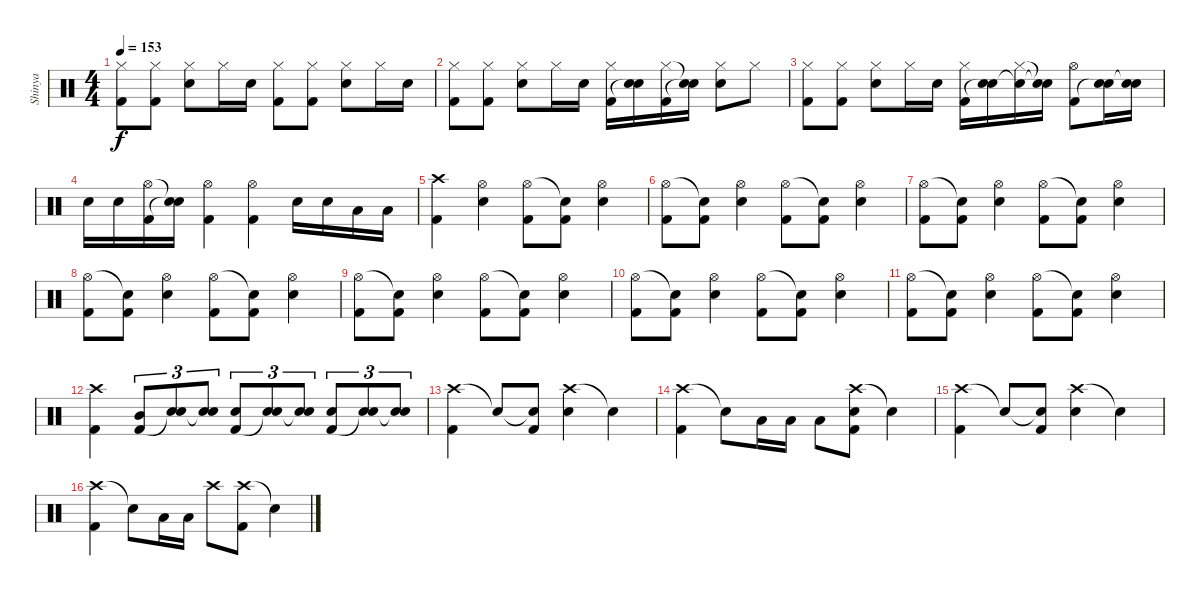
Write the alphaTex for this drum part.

\track ("Shinya" "Shinya") {instrument percussion}
\staff {score}
\articulation defaults
\ts (4 4)
\tempo 153
\clef neutral
\ks c
("Hi-Hat (closed)" "Kick (hit) 2").8{dy f} ("Hi-Hat (closed)" "Kick (hit) 2").8 ("Hi-Hat (closed)" "Electric Snare (hit)").8 "Hi-Hat (closed)".16 "Electric Snare (hit)".16 ("Hi-Hat (closed)" "Kick (hit) 2").8 ("Hi-Hat (closed)" "Kick (hit) 2").8 ("Hi-Hat (closed)" "Electric Snare (hit)").8 "Hi-Hat (closed)".16 "Electric Snare (hit)".16 |
("Hi-Hat (closed)" "Kick (hit) 2").8 ("Hi-Hat (closed)" "Kick (hit) 2").8 ("Hi-Hat (closed)" "Electric Snare (hit)").8 "Hi-Hat (closed)".16 "Electric Snare (hit)".16 ("Hi-Hat (closed)" "Kick (hit) 2").16 ("Electric Snare (hit)" "Snare (hit)"{t}).16 ("Hi-Hat (closed)" "Kick (hit) 2").16 ("Snare (hit)"{t} "Snare (hit)"{t}).16 ("Hi-Hat (closed)" "Electric Snare (hit)").8 "Hi-Hat (closed)".8 |
("Hi-Hat (closed)" "Kick (hit) 2").8 ("Hi-Hat (closed)" "Kick (hit) 2").8 ("Hi-Hat (closed)" "Electric Snare (hit)").8 "Hi-Hat (closed)".16 "Electric Snare (hit)".16 ("Hi-Hat (closed)" "Kick (hit) 2").16 ("Electric Snare (hit)" "Snare (hit)"{t}).16 ("Hi-Hat (closed)" "Snare (hit)"{t}).16 ("Snare (hit)"{t} "Snare (hit)"{t}).16 ("Hi-Hat (open)" "Kick (hit) 2").8 ("Electric Snare (hit)" "Snare (hit)"{t}).16 ("Electric Snare (hit)" "Snare (hit)"{t}).16 |
"Electric Snare (hit)".16 "Electric Snare (hit)".16 ("Hi-Hat (open)" "Kick (hit) 2").16 ("Snare (hit)"{t} "Snare (hit)"{t}).16 ("Hi-Hat (open)" "Kick (hit) 2").4 ("Hi-Hat (open)" "Kick (hit) 2").4 "Electric Snare (hit)".16 "Electric Snare (hit)".16 "Low Tom (hit)".16 "Low Floor Tom (hit)".16 |
("Crash high (hit)" "Kick (hit) 2").4 ("Hi-Hat (open)" "Electric Snare (hit)").4 ("Hi-Hat (open)" "Kick (hit) 2").8 ("Snare (hit)"{t} "Kick (hit) 2").8 ("Hi-Hat (open)" "Electric Snare (hit)").4 |
("Hi-Hat (open)" "Kick (hit) 2").8 ("Snare (hit)"{t} "Kick (hit) 2").8 ("Hi-Hat (open)" "Electric Snare (hit)").4 ("Hi-Hat (open)" "Kick (hit) 2").8 ("Snare (hit)"{t} "Kick (hit) 2").8 ("Hi-Hat (open)" "Electric Snare (hit)").4 |
("Hi-Hat (open)" "Kick (hit) 2").8 ("Snare (hit)"{t} "Kick (hit) 2").8 ("Hi-Hat (open)" "Electric Snare (hit)").4 ("Hi-Hat (open)" "Kick (hit) 2").8 ("Snare (hit)"{t} "Kick (hit) 2").8 ("Hi-Hat (open)" "Electric Snare (hit)").4 |
("Hi-Hat (open)" "Kick (hit) 2").8 ("Snare (hit)"{t} "Kick (hit) 2").8 ("Hi-Hat (open)" "Electric Snare (hit)").4 ("Hi-Hat (open)" "Kick (hit) 2").8 ("Snare (hit)"{t} "Kick (hit) 2").8 ("Hi-Hat (open)" "Electric Snare (hit)").4 |
("Hi-Hat (open)" "Kick (hit) 2").8 ("Snare (hit)"{t} "Kick (hit) 2").8 ("Hi-Hat (open)" "Electric Snare (hit)").4 ("Hi-Hat (open)" "Kick (hit) 2").8 ("Snare (hit)"{t} "Kick (hit) 2").8 ("Hi-Hat (open)" "Electric Snare (hit)").4 |
("Hi-Hat (open)" "Kick (hit) 2").8 ("Snare (hit)"{t} "Kick (hit) 2").8 ("Hi-Hat (open)" "Electric Snare (hit)").4 ("Hi-Hat (open)" "Kick (hit) 2").8 ("Snare (hit)"{t} "Kick (hit) 2").8 ("Hi-Hat (open)" "Electric Snare (hit)").4 |
("Hi-Hat (open)" "Kick (hit) 2").8 ("Snare (hit)"{t} "Kick (hit) 2").8 ("Hi-Hat (open)" "Electric Snare (hit)").4 ("Hi-Hat (open)" "Kick (hit) 2").8 ("Snare (hit)"{t} "Kick (hit) 2").8 ("Hi-Hat (open)" "Electric Snare (hit)").4 |
("Crash high (hit)" "Kick (hit) 2").4 ("Mid Tom (hit)" "Kick (hit) 2").8{tu (3 2)} ("Electric Snare (hit)" "Snare (hit)"{t}).8{tu (3 2)} ("Electric Snare (hit)" "Snare (hit)"{t}).8{tu (3 2)} ("Electric Snare (hit)" "Kick (hit) 2").8{tu (3 2)} ("Electric Snare (hit)" "Snare (hit)"{t}).8{tu (3 2)} ("Electric Snare (hit)" "Snare (hit)"{t}).8{tu (3 2)} ("Electric Snare (hit)" "Kick (hit) 2").8{tu (3 2)} ("Electric Snare (hit)" "Snare (hit)"{t}).8{tu (3 2)} ("Electric Snare (hit)" "Snare (hit)"{t}).8{tu (3 2)} |
("Crash high (hit)" "Kick (hit) 2").4 "Snare (hit)"{t}.8 ("Snare (hit)"{t} "Kick (hit) 2").8 ("Crash high (hit)" "Electric Snare (hit)").4 "Snare (hit)"{t}.4 |
("Crash high (hit)" "Kick (hit) 2").4 "Snare (hit)"{t}.8 "Low Tom (hit)".16 "Low Tom (hit)".16 "Low Floor Tom (hit)".8 ("Crash high (hit)" "Electric Snare (hit)" "Kick (hit) 2").8 "Snare (hit)"{t}.4 |
("Crash high (hit)" "Kick (hit) 2").4 "Snare (hit)"{t}.8 ("Snare (hit)"{t} "Kick (hit) 2").8 ("Crash high (hit)" "Electric Snare (hit)").4 "Snare (hit)"{t}.4 |
("Crash high (hit)" "Kick (hit) 2").4 "Snare (hit)"{t}.8 "Low Tom (hit)".16 "Low Tom (hit)".16 "Crash high (hit)".8 ("Crash high (hit)" "Kick (hit) 2").8 "Snare (hit)"{t}.4
